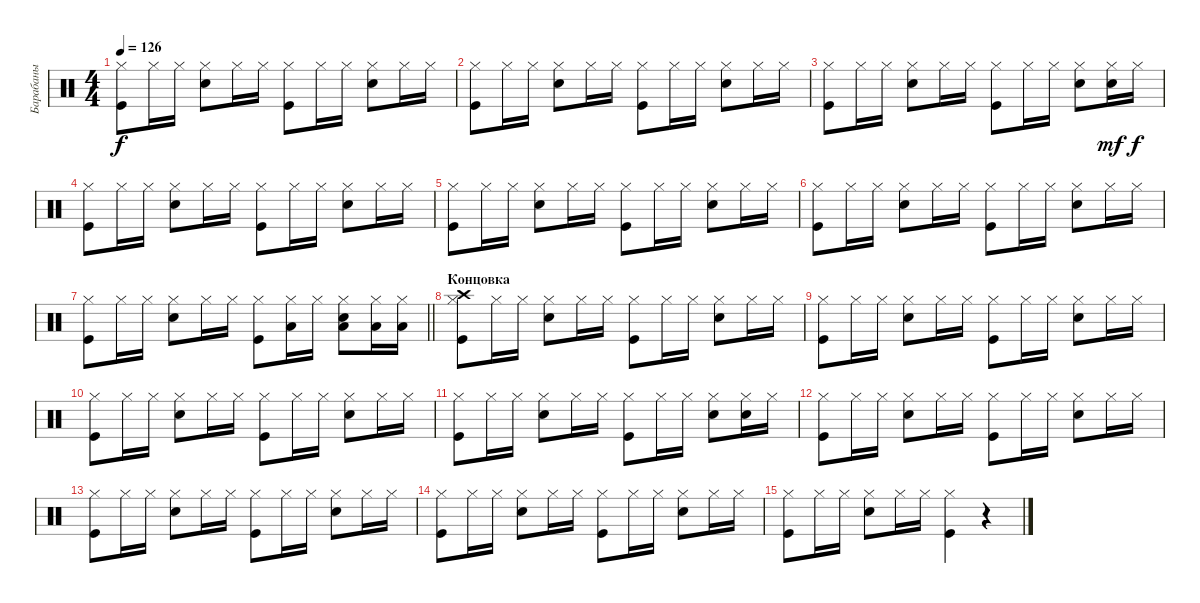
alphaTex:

\track ("Барабаны" "Барабаны") {instrument percussion}
\staff {score}
\articulation defaults
\ts (4 4)
\tempo 126
\clef neutral
\ks c
("Kick (hit)" "Hi-Hat (closed)").8{dy f} "Hi-Hat (closed)".16 "Hi-Hat (closed)".16 ("Snare (hit) 2" "Hi-Hat (closed)").8 "Hi-Hat (closed)".16 "Hi-Hat (closed)".16 ("Kick (hit)" "Hi-Hat (closed)").8 "Hi-Hat (closed)".16 "Hi-Hat (closed)".16 ("Snare (hit) 2" "Hi-Hat (closed)").8 "Hi-Hat (closed)".16 "Hi-Hat (closed)".16 |
("Kick (hit)" "Hi-Hat (closed)").8 "Hi-Hat (closed)".16 "Hi-Hat (closed)".16 ("Snare (hit) 2" "Hi-Hat (closed)").8 "Hi-Hat (closed)".16 "Hi-Hat (closed)".16 ("Kick (hit)" "Hi-Hat (closed)").8 "Hi-Hat (closed)".16 "Hi-Hat (closed)".16 ("Snare (hit) 2" "Hi-Hat (closed)").8 "Hi-Hat (closed)".16 "Hi-Hat (closed)".16 |
("Kick (hit)" "Hi-Hat (closed)").8 "Hi-Hat (closed)".16 "Hi-Hat (closed)".16 ("Snare (hit) 2" "Hi-Hat (closed)").8 "Hi-Hat (closed)".16 "Hi-Hat (closed)".16 ("Kick (hit)" "Hi-Hat (closed)").8 "Hi-Hat (closed)".16 "Hi-Hat (closed)".16 ("Snare (hit) 2" "Hi-Hat (closed)").8 ("Snare (hit) 2" "Hi-Hat (closed)").16{dy mf} "Hi-Hat (closed)".16{dy f} |
("Kick (hit)" "Hi-Hat (closed)").8 "Hi-Hat (closed)".16 "Hi-Hat (closed)".16 ("Snare (hit) 2" "Hi-Hat (closed)").8 "Hi-Hat (closed)".16 "Hi-Hat (closed)".16 ("Kick (hit)" "Hi-Hat (closed)").8 "Hi-Hat (closed)".16 "Hi-Hat (closed)".16 ("Snare (hit) 2" "Hi-Hat (closed)").8 "Hi-Hat (closed)".16 "Hi-Hat (closed)".16 |
("Kick (hit)" "Hi-Hat (closed)").8 "Hi-Hat (closed)".16 "Hi-Hat (closed)".16 ("Snare (hit) 2" "Hi-Hat (closed)").8 "Hi-Hat (closed)".16 "Hi-Hat (closed)".16 ("Kick (hit)" "Hi-Hat (closed)").8 "Hi-Hat (closed)".16 "Hi-Hat (closed)".16 ("Snare (hit) 2" "Hi-Hat (closed)").8 "Hi-Hat (closed)".16 "Hi-Hat (closed)".16 |
("Kick (hit)" "Hi-Hat (closed)").8 "Hi-Hat (closed)".16 "Hi-Hat (closed)".16 ("Snare (hit) 2" "Hi-Hat (closed)").8 "Hi-Hat (closed)".16 "Hi-Hat (closed)".16 ("Kick (hit)" "Hi-Hat (closed)").8 "Hi-Hat (closed)".16 "Hi-Hat (closed)".16 ("Snare (hit) 2" "Hi-Hat (closed)").8 "Hi-Hat (closed)".16 "Hi-Hat (closed)".16 |
\barLineRight lightlight
("Kick (hit)" "Hi-Hat (closed)").8 "Hi-Hat (closed)".16 "Hi-Hat (closed)".16 ("Snare (hit) 2" "Hi-Hat (closed)").8 "Hi-Hat (closed)".16 "Hi-Hat (closed)".16 ("Kick (hit)" "Hi-Hat (closed)").8 ("Hi-Hat (closed)" "Low Tom (hit)").16 "Hi-Hat (closed)".16 ("Snare (hit) 2" "Hi-Hat (closed)" "Low Tom (hit)").8 ("Hi-Hat (closed)" "Low Tom (hit)").16 ("Hi-Hat (closed)" "Low Tom (hit)").16 |
\section ("" "Концовка")
("Kick (hit)" "Hi-Hat (closed)" "Crash high (hit)").8 "Hi-Hat (closed)".16 "Hi-Hat (closed)".16 ("Snare (hit) 2" "Hi-Hat (closed)").8 "Hi-Hat (closed)".16 "Hi-Hat (closed)".16 ("Kick (hit)" "Hi-Hat (closed)").8 "Hi-Hat (closed)".16 "Hi-Hat (closed)".16 ("Snare (hit) 2" "Hi-Hat (closed)").8 "Hi-Hat (closed)".16 "Hi-Hat (closed)".16 |
("Kick (hit)" "Hi-Hat (closed)").8 "Hi-Hat (closed)".16 "Hi-Hat (closed)".16 ("Snare (hit) 2" "Hi-Hat (closed)").8 "Hi-Hat (closed)".16 "Hi-Hat (closed)".16 ("Kick (hit)" "Hi-Hat (closed)").8 "Hi-Hat (closed)".16 "Hi-Hat (closed)".16 ("Snare (hit) 2" "Hi-Hat (closed)").8 "Hi-Hat (closed)".16 "Hi-Hat (closed)".16 |
("Kick (hit)" "Hi-Hat (closed)").8 "Hi-Hat (closed)".16 "Hi-Hat (closed)".16 ("Snare (hit) 2" "Hi-Hat (closed)").8 "Hi-Hat (closed)".16 "Hi-Hat (closed)".16 ("Kick (hit)" "Hi-Hat (closed)").8 "Hi-Hat (closed)".16 "Hi-Hat (closed)".16 ("Snare (hit) 2" "Hi-Hat (closed)").8 "Hi-Hat (closed)".16 "Hi-Hat (closed)".16 |
("Kick (hit)" "Hi-Hat (closed)").8 "Hi-Hat (closed)".16 "Hi-Hat (closed)".16 ("Snare (hit) 2" "Hi-Hat (closed)").8 "Hi-Hat (closed)".16 "Hi-Hat (closed)".16 ("Kick (hit)" "Hi-Hat (closed)").8 "Hi-Hat (closed)".16 "Hi-Hat (closed)".16 ("Snare (hit) 2" "Hi-Hat (closed)").8 ("Snare (hit) 2" "Hi-Hat (closed)").16 "Hi-Hat (closed)".16 |
("Kick (hit)" "Hi-Hat (closed)").8 "Hi-Hat (closed)".16 "Hi-Hat (closed)".16 ("Snare (hit) 2" "Hi-Hat (closed)").8 "Hi-Hat (closed)".16 "Hi-Hat (closed)".16 ("Kick (hit)" "Hi-Hat (closed)").8 "Hi-Hat (closed)".16 "Hi-Hat (closed)".16 ("Snare (hit) 2" "Hi-Hat (closed)").8 "Hi-Hat (closed)".16 "Hi-Hat (closed)".16 |
("Kick (hit)" "Hi-Hat (closed)").8 "Hi-Hat (closed)".16 "Hi-Hat (closed)".16 ("Snare (hit) 2" "Hi-Hat (closed)").8 "Hi-Hat (closed)".16 "Hi-Hat (closed)".16 ("Kick (hit)" "Hi-Hat (closed)").8 "Hi-Hat (closed)".16 "Hi-Hat (closed)".16 ("Snare (hit) 2" "Hi-Hat (closed)").8 "Hi-Hat (closed)".16 "Hi-Hat (closed)".16 |
("Kick (hit)" "Hi-Hat (closed)").8 "Hi-Hat (closed)".16 "Hi-Hat (closed)".16 ("Snare (hit) 2" "Hi-Hat (closed)").8 "Hi-Hat (closed)".16 "Hi-Hat (closed)".16 ("Kick (hit)" "Hi-Hat (closed)").8 "Hi-Hat (closed)".16 "Hi-Hat (closed)".16 ("Snare (hit) 2" "Hi-Hat (closed)").8 "Hi-Hat (closed)".16 "Hi-Hat (closed)".16 |
("Kick (hit)" "Hi-Hat (closed)").8 "Hi-Hat (closed)".16 "Hi-Hat (closed)".16 ("Snare (hit) 2" "Hi-Hat (closed)").8 "Hi-Hat (closed)".16 "Hi-Hat (closed)".16 ("Kick (hit)" "Hi-Hat (closed)").4 r.4
